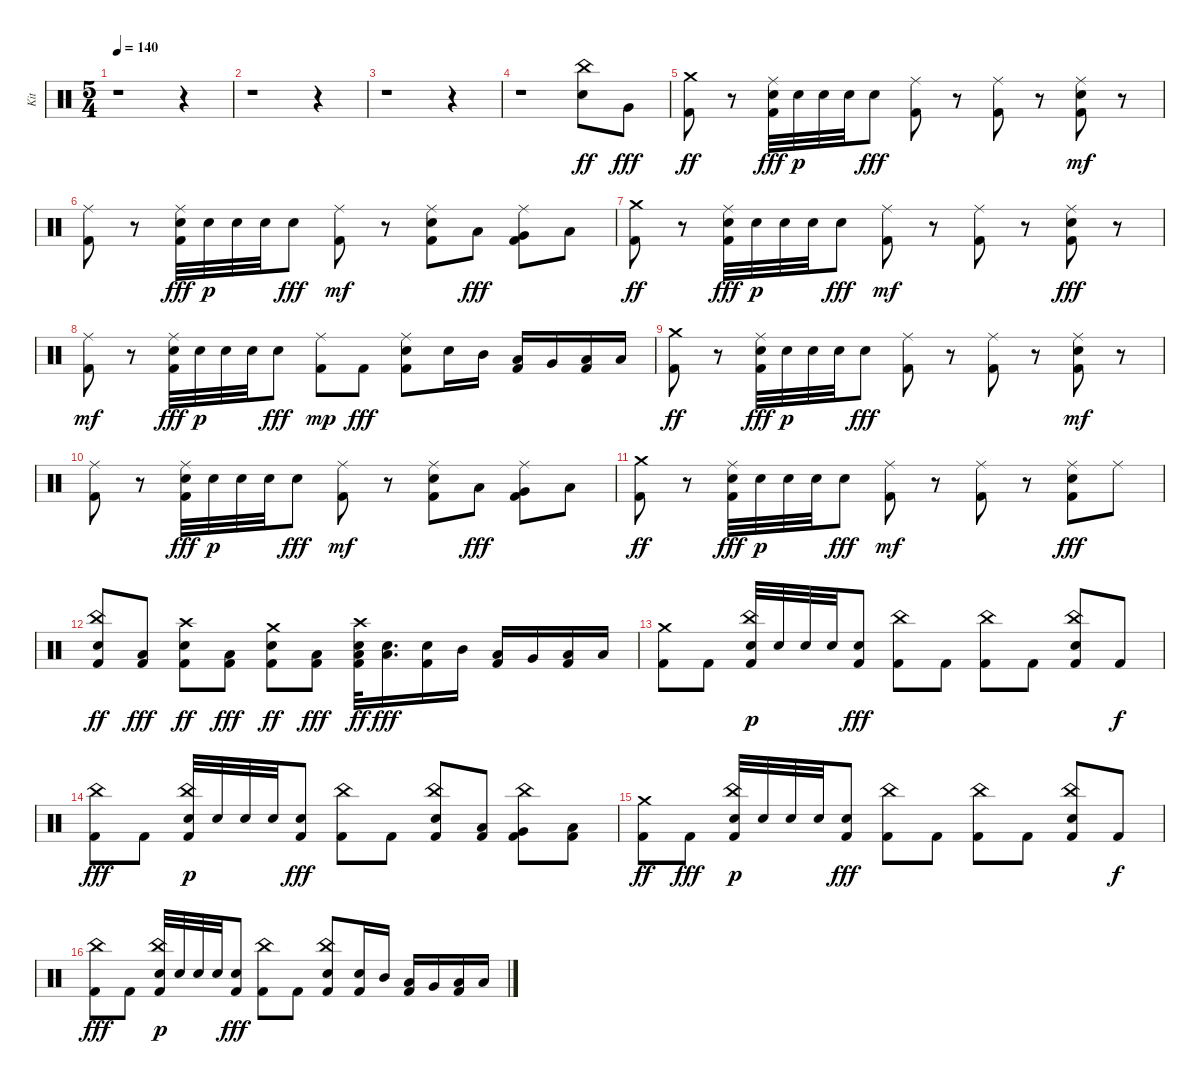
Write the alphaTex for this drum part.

\track ("Kit" "Kit") {instrument percussion}
\staff {score}
\articulation defaults
\ts (5 4)
\tempo 140
\clef neutral
\ks c
r.1{dy ppp} r.4 |
r.1 r.4 |
r.1 r.4 |
r.1 ("Snare (hit) 2" "China (hit)").8{dy ff} "Very Low Tom (hit)".8{dy fff} |
("Kick (hit) 2" "Crash medium (hit)").8{dy ff} r.8 ("Kick (hit) 2" "Snare (hit) 2" "Ride (middle)").32{dy fff} "Snare (hit) 2".32{dy p} "Snare (hit) 2".32 "Snare (hit) 2".32 "Snare (hit) 2".8{dy fff} ("Kick (hit) 2" "Ride (middle)").8 r.8 ("Kick (hit) 2" "Ride (middle)").8 r.8 ("Kick (hit) 2" "Snare (hit) 2" "Ride (middle)").8{dy mf} r.8 |
("Kick (hit) 2" "Ride (middle)").8 r.8 ("Kick (hit) 2" "Snare (hit) 2" "Ride (middle)").32{dy fff} "Snare (hit) 2".32{dy p} "Snare (hit) 2".32 "Snare (hit) 2".32 "Snare (hit) 2".8{dy fff} ("Kick (hit) 2" "Ride (middle)").8{dy mf} r.8 ("Kick (hit) 2" "Snare (hit) 2" "Ride (middle)").8 "Low Tom (hit)".8{dy fff} ("Kick (hit) 2" "Very Low Tom (hit)" "Ride (middle)").8 "Low Floor Tom (hit)".8 |
("Kick (hit) 2" "Crash medium (hit)").8{dy ff} r.8 ("Kick (hit) 2" "Snare (hit) 2" "Ride (middle)").32{dy fff} "Snare (hit) 2".32{dy p} "Snare (hit) 2".32 "Snare (hit) 2".32 "Snare (hit) 2".8{dy fff} ("Kick (hit) 2" "Ride (middle)").8{dy mf} r.8 ("Kick (hit) 2" "Ride (middle)").8 r.8 ("Kick (hit) 2" "Snare (hit) 2" "Ride (middle)").8{dy fff} r.8 |
("Kick (hit) 2" "Ride (middle)").8{dy mf} r.8 ("Kick (hit) 2" "Snare (hit) 2" "Ride (middle)").32{dy fff} "Snare (hit) 2".32{dy p} "Snare (hit) 2".32 "Snare (hit) 2".32 "Snare (hit) 2".8{dy fff} ("Kick (hit) 2" "Ride (middle)").8{dy mp} "Kick (hit) 2".8{dy fff} ("Kick (hit) 2" "Snare (hit) 2" "Ride (middle)").8 "Snare (hit) 2".16 "Mid Tom (hit)".16 ("Kick (hit) 2" "Low Tom (hit)").16 "Very Low Tom (hit)".16 ("Kick (hit) 2" "Low Floor Tom (hit)").16 "Low Floor Tom (hit)".16 |
("Kick (hit) 2" "Crash medium (hit)").8{dy ff} r.8 ("Kick (hit) 2" "Snare (hit) 2" "Ride (middle)").32{dy fff} "Snare (hit) 2".32{dy p} "Snare (hit) 2".32 "Snare (hit) 2".32 "Snare (hit) 2".8{dy fff} ("Kick (hit) 2" "Ride (middle)").8 r.8 ("Kick (hit) 2" "Ride (middle)").8 r.8 ("Kick (hit) 2" "Snare (hit) 2" "Ride (middle)").8{dy mf} r.8 |
("Kick (hit) 2" "Ride (middle)").8 r.8 ("Kick (hit) 2" "Snare (hit) 2" "Ride (middle)").32{dy fff} "Snare (hit) 2".32{dy p} "Snare (hit) 2".32 "Snare (hit) 2".32 "Snare (hit) 2".8{dy fff} ("Kick (hit) 2" "Ride (middle)").8{dy mf} r.8 ("Kick (hit) 2" "Snare (hit) 2" "Ride (middle)").8 "Low Tom (hit)".8{dy fff} ("Kick (hit) 2" "Very Low Tom (hit)" "Ride (middle)").8 "Low Floor Tom (hit)".8 |
("Kick (hit) 2" "Crash medium (hit)").8{dy ff} r.8 ("Kick (hit) 2" "Snare (hit) 2" "Ride (middle)").32{dy fff} "Snare (hit) 2".32{dy p} "Snare (hit) 2".32 "Snare (hit) 2".32 "Snare (hit) 2".8{dy fff} ("Kick (hit) 2" "Ride (middle)").8{dy mf} r.8 ("Kick (hit) 2" "Ride (middle)").8 r.8 ("Kick (hit) 2" "Snare (hit) 2" "Ride (middle)").8{dy fff} "Ride (middle)".8 |
("Kick (hit) 2" "Snare (hit) 2" "China (hit)").8{dy ff} ("Kick (hit) 2" "Low Floor Tom (hit)").8{dy fff} ("Kick (hit) 2" "Snare (hit) 2" "Crash high (hit)").8{dy ff} ("Kick (hit) 2" "Low Floor Tom (hit)").8{dy fff} ("Kick (hit) 2" "Snare (hit) 2" "Crash medium (hit)").8{dy ff} ("Kick (hit) 2" "Low Floor Tom (hit)").8{dy fff} ("Kick (hit) 2" "Snare (hit) 2" "Low Tom (hit)" "Crash high (hit)").32{dy ff} ("Snare (hit) 2" "Low Tom (hit)").16{d dy fff} ("Kick (hit) 2" "Snare (hit) 2").16 "Mid Tom (hit)".16 ("Kick (hit) 2" "Low Tom (hit)").16 "Very Low Tom (hit)".16 ("Kick (hit) 2" "Low Floor Tom (hit)").16 "Low Floor Tom (hit)".16 |
("Kick (hit) 2" "Crash medium (hit)").8 "Kick (hit) 2".8 ("Kick (hit) 2" "Snare (hit) 2" "China (hit)").32{dy p} "Snare (hit) 2".32 "Snare (hit) 2".32 "Snare (hit) 2".32 ("Kick (hit) 2" "Snare (hit) 2").8{dy fff} ("Kick (hit) 2" "China (hit)").8 "Kick (hit) 2".8 ("Kick (hit) 2" "China (hit)").8 "Kick (hit) 2".8 ("Kick (hit) 2" "Snare (hit) 2" "China (hit)").8 "Kick (hit) 2".8{dy f} |
("Kick (hit) 2" "China (hit)").8{dy fff} "Kick (hit) 2".8 ("Kick (hit) 2" "Snare (hit) 2" "China (hit)").32{dy p} "Snare (hit) 2".32 "Snare (hit) 2".32 "Snare (hit) 2".32 ("Kick (hit) 2" "Snare (hit) 2").8{dy fff} ("Kick (hit) 2" "China (hit)").8 "Kick (hit) 2".8 ("Kick (hit) 2" "Snare (hit) 2" "China (hit)").8 ("Kick (hit) 2" "Low Tom (hit)").8 ("Kick (hit) 2" "Very Low Tom (hit)" "China (hit)").8 ("Kick (hit) 2" "Low Floor Tom (hit)").8 |
("Kick (hit) 2" "Crash medium (hit)").8{dy ff} "Kick (hit) 2".8{dy fff} ("Kick (hit) 2" "Snare (hit) 2" "China (hit)").32{dy p} "Snare (hit) 2".32 "Snare (hit) 2".32 "Snare (hit) 2".32 ("Kick (hit) 2" "Snare (hit) 2").8{dy fff} ("Kick (hit) 2" "China (hit)").8 "Kick (hit) 2".8 ("Kick (hit) 2" "China (hit)").8 "Kick (hit) 2".8 ("Kick (hit) 2" "Snare (hit) 2" "China (hit)").8 "Kick (hit) 2".8{dy f} |
("Kick (hit) 2" "China (hit)").8{dy fff} "Kick (hit) 2".8 ("Kick (hit) 2" "Snare (hit) 2" "China (hit)").32{dy p} "Snare (hit) 2".32 "Snare (hit) 2".32 "Snare (hit) 2".32 ("Kick (hit) 2" "Snare (hit) 2").8{dy fff} ("Kick (hit) 2" "China (hit)").8 "Kick (hit) 2".8 ("Kick (hit) 2" "Snare (hit) 2" "China (hit)").8 ("Kick (hit) 2" "Snare (hit) 2").16 "Mid Tom (hit)".16 ("Kick (hit) 2" "Low Tom (hit)").16 "Very Low Tom (hit)".16 ("Kick (hit) 2" "Low Floor Tom (hit)").16 "Low Floor Tom (hit)".16
